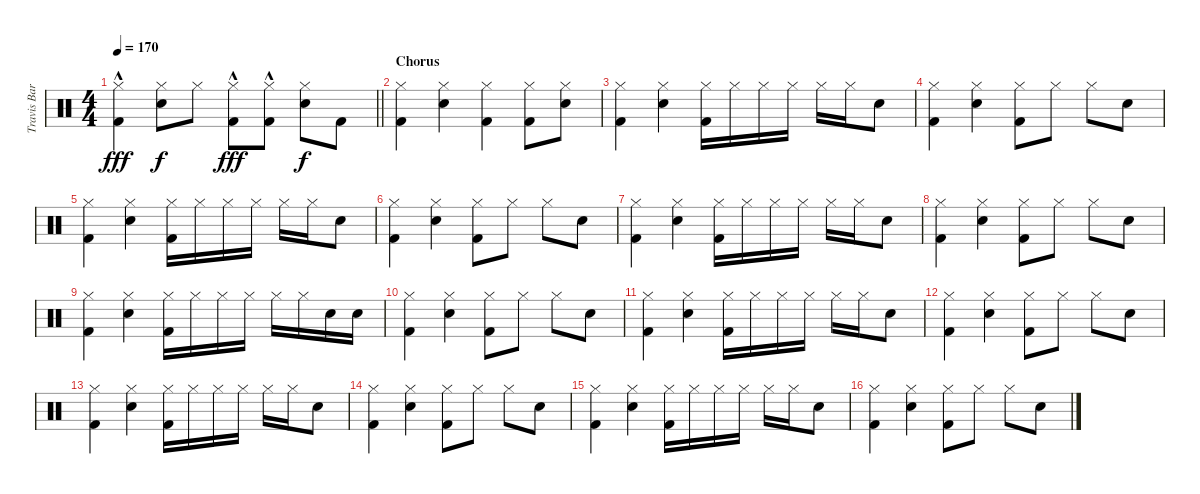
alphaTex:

\track ("Travis Barker" "Travis Bar") {instrument percussion}
\staff {score}
\articulation defaults
\ts (4 4)
\tempo 170
\clef neutral
\barLineRight lightlight
\ks c
("Hi-Hat (closed)" "Kick (hit) 2"{hac}).4{dy fff} ("Hi-Hat (closed)" "Snare (hit) 2").8{dy f} "Hi-Hat (closed)".8 ("Hi-Hat (closed)" "Kick (hit) 2"{hac}).8{dy fff} ("Hi-Hat (closed)" "Kick (hit) 2"{hac}).8 ("Hi-Hat (closed)" "Snare (hit) 2").8{dy f} "Kick (hit) 2".8 |
\section ("" "Chorus")
("Kick (hit) 2" "Hi-Hat (closed)").4 ("Snare (hit) 2" "Hi-Hat (closed)").4 ("Kick (hit) 2" "Hi-Hat (closed)").4 ("Kick (hit) 2" "Hi-Hat (closed)").8 ("Snare (hit) 2" "Hi-Hat (closed)").8 |
("Kick (hit) 2" "Hi-Hat (closed)").4 ("Snare (hit) 2" "Hi-Hat (closed)").4 ("Kick (hit) 2" "Hi-Hat (closed)").16 "Hi-Hat (closed)".16 "Hi-Hat (closed)".16 "Hi-Hat (closed)".16 "Hi-Hat (closed)".16 "Hi-Hat (closed)".16 "Snare (hit) 2".8 |
("Kick (hit) 2" "Hi-Hat (closed)").4 ("Snare (hit) 2" "Hi-Hat (closed)").4 ("Hi-Hat (closed)" "Kick (hit) 2").8 "Hi-Hat (closed)".8 "Hi-Hat (closed)".8 "Snare (hit) 2".8 |
("Kick (hit) 2" "Hi-Hat (closed)").4 ("Snare (hit) 2" "Hi-Hat (closed)").4 ("Kick (hit) 2" "Hi-Hat (closed)").16 "Hi-Hat (closed)".16 "Hi-Hat (closed)".16 "Hi-Hat (closed)".16 "Hi-Hat (closed)".16 "Hi-Hat (closed)".16 "Snare (hit) 2".8 |
("Kick (hit) 2" "Hi-Hat (closed)").4 ("Snare (hit) 2" "Hi-Hat (closed)").4 ("Hi-Hat (closed)" "Kick (hit) 2").8 "Hi-Hat (closed)".8 "Hi-Hat (closed)".8 "Snare (hit) 2".8 |
("Kick (hit) 2" "Hi-Hat (closed)").4 ("Snare (hit) 2" "Hi-Hat (closed)").4 ("Kick (hit) 2" "Hi-Hat (closed)").16 "Hi-Hat (closed)".16 "Hi-Hat (closed)".16 "Hi-Hat (closed)".16 "Hi-Hat (closed)".16 "Hi-Hat (closed)".16 "Snare (hit) 2".8 |
("Kick (hit) 2" "Hi-Hat (closed)").4 ("Snare (hit) 2" "Hi-Hat (closed)").4 ("Hi-Hat (closed)" "Kick (hit) 2").8 "Hi-Hat (closed)".8 "Hi-Hat (closed)".8 "Snare (hit) 2".8 |
("Kick (hit) 2" "Hi-Hat (closed)").4 ("Snare (hit) 2" "Hi-Hat (closed)").4 ("Kick (hit) 2" "Hi-Hat (closed)").16 "Hi-Hat (closed)".16 "Hi-Hat (closed)".16 "Hi-Hat (closed)".16 "Hi-Hat (closed)".16 "Hi-Hat (closed)".16 "Snare (hit) 2".16 "Snare (hit) 2".16 |
("Kick (hit) 2" "Hi-Hat (closed)").4 ("Snare (hit) 2" "Hi-Hat (closed)").4 ("Hi-Hat (closed)" "Kick (hit) 2").8 "Hi-Hat (closed)".8 "Hi-Hat (closed)".8 "Snare (hit) 2".8 |
("Kick (hit) 2" "Hi-Hat (closed)").4 ("Snare (hit) 2" "Hi-Hat (closed)").4 ("Kick (hit) 2" "Hi-Hat (closed)").16 "Hi-Hat (closed)".16 "Hi-Hat (closed)".16 "Hi-Hat (closed)".16 "Hi-Hat (closed)".16 "Hi-Hat (closed)".16 "Snare (hit) 2".8 |
("Kick (hit) 2" "Hi-Hat (closed)").4 ("Snare (hit) 2" "Hi-Hat (closed)").4 ("Hi-Hat (closed)" "Kick (hit) 2").8 "Hi-Hat (closed)".8 "Hi-Hat (closed)".8 "Snare (hit) 2".8 |
("Kick (hit) 2" "Hi-Hat (closed)").4 ("Snare (hit) 2" "Hi-Hat (closed)").4 ("Kick (hit) 2" "Hi-Hat (closed)").16 "Hi-Hat (closed)".16 "Hi-Hat (closed)".16 "Hi-Hat (closed)".16 "Hi-Hat (closed)".16 "Hi-Hat (closed)".16 "Snare (hit) 2".8 |
("Kick (hit) 2" "Hi-Hat (closed)").4 ("Snare (hit) 2" "Hi-Hat (closed)").4 ("Hi-Hat (closed)" "Kick (hit) 2").8 "Hi-Hat (closed)".8 "Hi-Hat (closed)".8 "Snare (hit) 2".8 |
("Kick (hit) 2" "Hi-Hat (closed)").4 ("Snare (hit) 2" "Hi-Hat (closed)").4 ("Kick (hit) 2" "Hi-Hat (closed)").16 "Hi-Hat (closed)".16 "Hi-Hat (closed)".16 "Hi-Hat (closed)".16 "Hi-Hat (closed)".16 "Hi-Hat (closed)".16 "Snare (hit) 2".8 |
("Kick (hit) 2" "Hi-Hat (closed)").4 ("Snare (hit) 2" "Hi-Hat (closed)").4 ("Hi-Hat (closed)" "Kick (hit) 2").8 "Hi-Hat (closed)".8 "Hi-Hat (closed)".8 "Snare (hit) 2".8
